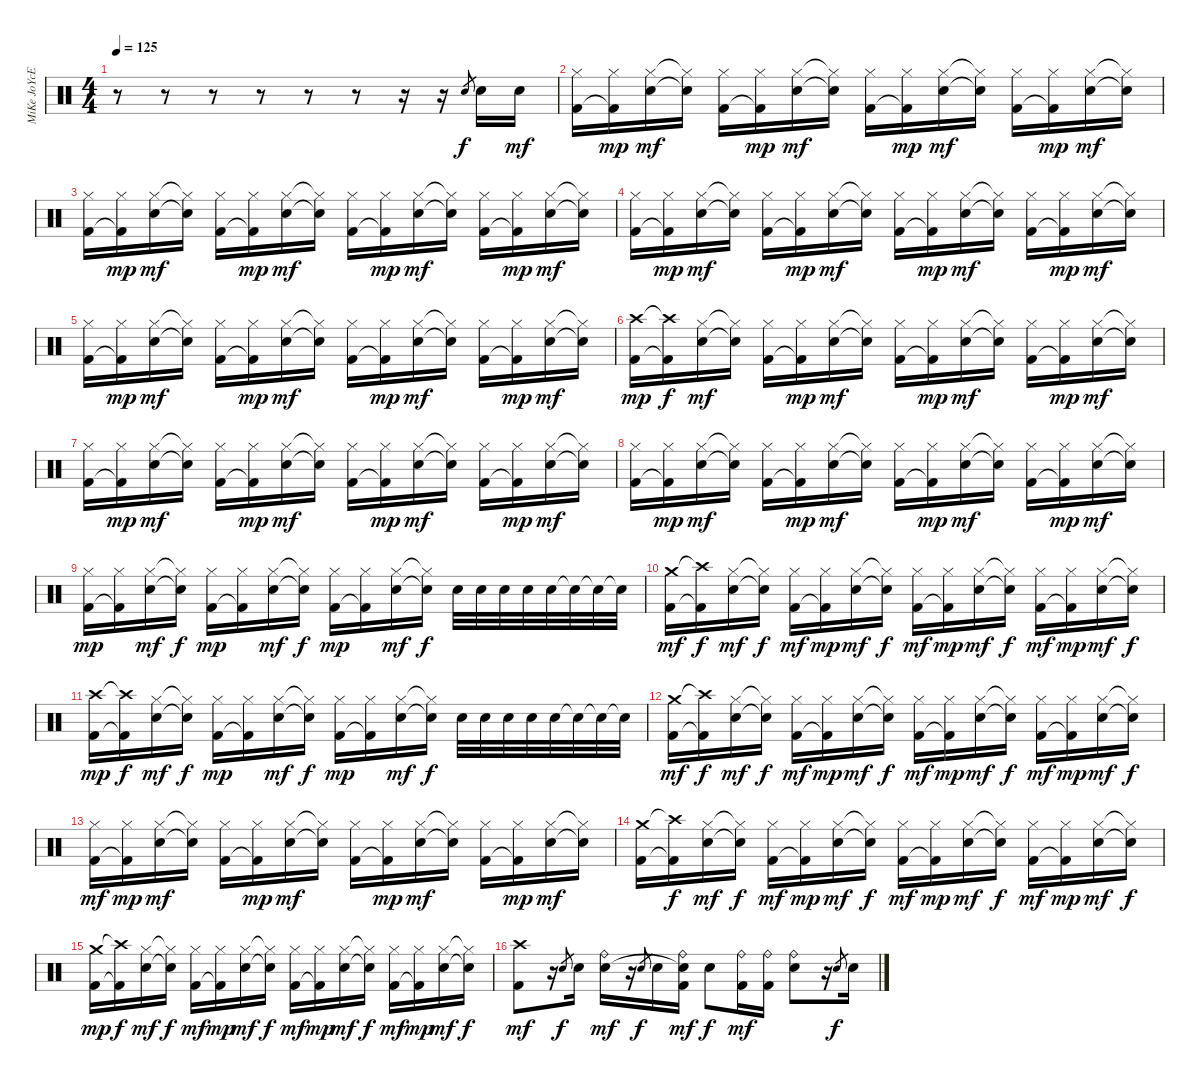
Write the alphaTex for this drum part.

\track ("MiKe JoYcE" "MiKe JoYcE") {instrument percussion}
\staff {score}
\articulation defaults
\ts (4 4)
\tempo 125
\clef neutral
\ks c
r.8{dy f} r.8 r.8 r.8 r.8 r.8 r.16 r.16 "Electric Snare (hit)".8{gr} "Electric Snare (hit)".16 "Electric Snare (hit)".16{dy mf} |
("Hi-Hat (closed)" "Kick (hit) 2").16 ("Hi-Hat (closed)" "Kick (hit) 2"{t}).16{dy mp} ("Hi-Hat (closed)" "Electric Snare (hit)").16{dy mf} ("Hi-Hat (closed)"{t} "Electric Snare (hit)"{t}).16 ("Hi-Hat (closed)" "Kick (hit) 2").16 ("Hi-Hat (closed)" "Kick (hit) 2"{t}).16{dy mp} ("Hi-Hat (closed)" "Electric Snare (hit)").16{dy mf} ("Hi-Hat (closed)"{t} "Electric Snare (hit)"{t}).16 ("Hi-Hat (closed)" "Kick (hit) 2").16 ("Hi-Hat (closed)" "Kick (hit) 2"{t}).16{dy mp} ("Hi-Hat (closed)" "Electric Snare (hit)").16{dy mf} ("Hi-Hat (closed)"{t} "Electric Snare (hit)"{t}).16 ("Hi-Hat (closed)" "Kick (hit) 2").16 ("Hi-Hat (closed)" "Kick (hit) 2"{t}).16{dy mp} ("Hi-Hat (closed)" "Electric Snare (hit)").16{dy mf} ("Hi-Hat (closed)"{t} "Electric Snare (hit)"{t}).16 |
("Hi-Hat (closed)" "Kick (hit) 2").16 ("Hi-Hat (closed)" "Kick (hit) 2"{t}).16{dy mp} ("Hi-Hat (closed)" "Electric Snare (hit)").16{dy mf} ("Hi-Hat (closed)"{t} "Electric Snare (hit)"{t}).16 ("Hi-Hat (closed)" "Kick (hit) 2").16 ("Hi-Hat (closed)" "Kick (hit) 2"{t}).16{dy mp} ("Hi-Hat (closed)" "Electric Snare (hit)").16{dy mf} ("Hi-Hat (closed)"{t} "Electric Snare (hit)"{t}).16 ("Hi-Hat (closed)" "Kick (hit) 2").16 ("Hi-Hat (closed)" "Kick (hit) 2"{t}).16{dy mp} ("Hi-Hat (closed)" "Electric Snare (hit)").16{dy mf} ("Hi-Hat (closed)"{t} "Electric Snare (hit)"{t}).16 ("Hi-Hat (closed)" "Kick (hit) 2").16 ("Hi-Hat (closed)" "Kick (hit) 2"{t}).16{dy mp} ("Hi-Hat (closed)" "Electric Snare (hit)").16{dy mf} ("Hi-Hat (closed)"{t} "Electric Snare (hit)"{t}).16 |
("Hi-Hat (closed)" "Kick (hit) 2").16 ("Hi-Hat (closed)" "Kick (hit) 2"{t}).16{dy mp} ("Hi-Hat (closed)" "Electric Snare (hit)").16{dy mf} ("Hi-Hat (closed)"{t} "Electric Snare (hit)"{t}).16 ("Hi-Hat (closed)" "Kick (hit) 2").16 ("Hi-Hat (closed)" "Kick (hit) 2"{t}).16{dy mp} ("Hi-Hat (closed)" "Electric Snare (hit)").16{dy mf} ("Hi-Hat (closed)"{t} "Electric Snare (hit)"{t}).16 ("Hi-Hat (closed)" "Kick (hit) 2").16 ("Hi-Hat (closed)" "Kick (hit) 2"{t}).16{dy mp} ("Hi-Hat (closed)" "Electric Snare (hit)").16{dy mf} ("Hi-Hat (closed)"{t} "Electric Snare (hit)"{t}).16 ("Hi-Hat (closed)" "Kick (hit) 2").16 ("Hi-Hat (closed)" "Kick (hit) 2"{t}).16{dy mp} ("Hi-Hat (closed)" "Electric Snare (hit)").16{dy mf} ("Hi-Hat (closed)"{t} "Electric Snare (hit)"{t}).16 |
("Hi-Hat (closed)" "Kick (hit) 2").16 ("Hi-Hat (closed)" "Kick (hit) 2"{t}).16{dy mp} ("Hi-Hat (closed)" "Electric Snare (hit)").16{dy mf} ("Hi-Hat (closed)"{t} "Electric Snare (hit)"{t}).16 ("Hi-Hat (closed)" "Kick (hit) 2").16 ("Hi-Hat (closed)" "Kick (hit) 2"{t}).16{dy mp} ("Hi-Hat (closed)" "Electric Snare (hit)").16{dy mf} ("Hi-Hat (closed)"{t} "Electric Snare (hit)"{t}).16 ("Hi-Hat (closed)" "Kick (hit) 2").16 ("Hi-Hat (closed)" "Kick (hit) 2"{t}).16{dy mp} ("Hi-Hat (closed)" "Electric Snare (hit)").16{dy mf} ("Hi-Hat (closed)"{t} "Electric Snare (hit)"{t}).16 ("Hi-Hat (closed)" "Kick (hit) 2").16 ("Hi-Hat (closed)" "Kick (hit) 2"{t}).16{dy mp} ("Hi-Hat (closed)" "Electric Snare (hit)").16{dy mf} ("Hi-Hat (closed)"{t} "Electric Snare (hit)"{t}).16 |
("Crash high (hit)" "Kick (hit) 2").16{dy mp} ("Crash high (hit)"{t} "Kick (hit) 2"{t}).16{dy f} ("Hi-Hat (closed)" "Electric Snare (hit)").16{dy mf} ("Hi-Hat (closed)"{t} "Electric Snare (hit)"{t}).16 ("Hi-Hat (closed)" "Kick (hit) 2").16 ("Hi-Hat (closed)" "Kick (hit) 2"{t}).16{dy mp} ("Hi-Hat (closed)" "Electric Snare (hit)").16{dy mf} ("Hi-Hat (closed)"{t} "Electric Snare (hit)"{t}).16 ("Hi-Hat (closed)" "Kick (hit) 2").16 ("Hi-Hat (closed)" "Kick (hit) 2"{t}).16{dy mp} ("Hi-Hat (closed)" "Electric Snare (hit)").16{dy mf} ("Hi-Hat (closed)"{t} "Electric Snare (hit)"{t}).16 ("Hi-Hat (closed)" "Kick (hit) 2").16 ("Hi-Hat (closed)" "Kick (hit) 2"{t}).16{dy mp} ("Hi-Hat (closed)" "Electric Snare (hit)").16{dy mf} ("Hi-Hat (closed)"{t} "Electric Snare (hit)"{t}).16 |
("Hi-Hat (closed)" "Kick (hit) 2").16 ("Hi-Hat (closed)" "Kick (hit) 2"{t}).16{dy mp} ("Hi-Hat (closed)" "Electric Snare (hit)").16{dy mf} ("Hi-Hat (closed)"{t} "Electric Snare (hit)"{t}).16 ("Hi-Hat (closed)" "Kick (hit) 2").16 ("Hi-Hat (closed)" "Kick (hit) 2"{t}).16{dy mp} ("Hi-Hat (closed)" "Electric Snare (hit)").16{dy mf} ("Hi-Hat (closed)"{t} "Electric Snare (hit)"{t}).16 ("Hi-Hat (closed)" "Kick (hit) 2").16 ("Hi-Hat (closed)" "Kick (hit) 2"{t}).16{dy mp} ("Hi-Hat (closed)" "Electric Snare (hit)").16{dy mf} ("Hi-Hat (closed)"{t} "Electric Snare (hit)"{t}).16 ("Hi-Hat (closed)" "Kick (hit) 2").16 ("Hi-Hat (closed)" "Kick (hit) 2"{t}).16{dy mp} ("Hi-Hat (closed)" "Electric Snare (hit)").16{dy mf} ("Hi-Hat (closed)"{t} "Electric Snare (hit)"{t}).16 |
("Hi-Hat (closed)" "Kick (hit) 2").16 ("Hi-Hat (closed)" "Kick (hit) 2"{t}).16{dy mp} ("Hi-Hat (closed)" "Electric Snare (hit)").16{dy mf} ("Hi-Hat (closed)"{t} "Electric Snare (hit)"{t}).16 ("Hi-Hat (closed)" "Kick (hit) 2").16 ("Hi-Hat (closed)" "Kick (hit) 2"{t}).16{dy mp} ("Hi-Hat (closed)" "Electric Snare (hit)").16{dy mf} ("Hi-Hat (closed)"{t} "Electric Snare (hit)"{t}).16 ("Hi-Hat (closed)" "Kick (hit) 2").16 ("Hi-Hat (closed)" "Kick (hit) 2"{t}).16{dy mp} ("Hi-Hat (closed)" "Electric Snare (hit)").16{dy mf} ("Hi-Hat (closed)"{t} "Electric Snare (hit)"{t}).16 ("Hi-Hat (closed)" "Kick (hit) 2").16 ("Hi-Hat (closed)" "Kick (hit) 2"{t}).16{dy mp} ("Hi-Hat (closed)" "Electric Snare (hit)").16{dy mf} ("Hi-Hat (closed)"{t} "Electric Snare (hit)"{t}).16 |
("Hi-Hat (closed)" "Kick (hit) 2").16{dy mp} ("Hi-Hat (closed)" "Kick (hit) 2"{t}).16 ("Hi-Hat (closed)" "Electric Snare (hit)").16{dy mf} ("Hi-Hat (closed)"{t} "Electric Snare (hit)"{t}).16{dy f} ("Hi-Hat (closed)" "Kick (hit) 2").16{dy mp} ("Hi-Hat (closed)" "Kick (hit) 2"{t}).16 ("Hi-Hat (closed)" "Electric Snare (hit)").16{dy mf} ("Hi-Hat (closed)"{t} "Electric Snare (hit)"{t}).16{dy f} ("Hi-Hat (closed)" "Kick (hit) 2").16{dy mp} ("Hi-Hat (closed)" "Kick (hit) 2"{t}).16 ("Hi-Hat (closed)" "Electric Snare (hit)").16{dy mf} ("Hi-Hat (closed)"{t} "Electric Snare (hit)"{t}).16{dy f} "Electric Snare (hit)".32 "Electric Snare (hit)".32 "Electric Snare (hit)".32 "Electric Snare (hit)".32 "Electric Snare (hit)".32 "Electric Snare (hit)"{t}.32 "Electric Snare (hit)"{t}.32 "Electric Snare (hit)"{t}.32 |
("Crash medium (hit)" "Kick (hit) 2").16{dy mf} ("Crash high (hit)"{t} "Kick (hit) 2"{t}).16{dy f} ("Hi-Hat (closed)" "Electric Snare (hit)").16{dy mf} ("Hi-Hat (closed)"{t} "Electric Snare (hit)"{t}).16{dy f} ("Hi-Hat (closed)" "Kick (hit) 2").16{dy mf} ("Hi-Hat (closed)" "Kick (hit) 2"{t}).16{dy mp} ("Hi-Hat (closed)" "Electric Snare (hit)").16{dy mf} ("Hi-Hat (closed)"{t} "Electric Snare (hit)"{t}).16{dy f} ("Hi-Hat (closed)" "Kick (hit) 2").16{dy mf} ("Hi-Hat (closed)" "Kick (hit) 2"{t}).16{dy mp} ("Hi-Hat (closed)" "Electric Snare (hit)").16{dy mf} ("Hi-Hat (closed)"{t} "Electric Snare (hit)"{t}).16{dy f} ("Hi-Hat (closed)" "Kick (hit) 2").16{dy mf} ("Hi-Hat (closed)" "Kick (hit) 2"{t}).16{dy mp} ("Hi-Hat (closed)" "Electric Snare (hit)").16{dy mf} ("Hi-Hat (closed)"{t} "Electric Snare (hit)"{t}).16{dy f} |
("Crash high (hit)" "Kick (hit) 2").16{dy mp} ("Crash high (hit)"{t} "Kick (hit) 2"{t}).16{dy f} ("Hi-Hat (closed)" "Electric Snare (hit)").16{dy mf} ("Hi-Hat (closed)"{t} "Electric Snare (hit)"{t}).16{dy f} ("Hi-Hat (closed)" "Kick (hit) 2").16{dy mp} ("Hi-Hat (closed)" "Kick (hit) 2"{t}).16 ("Hi-Hat (closed)" "Electric Snare (hit)").16{dy mf} ("Hi-Hat (closed)"{t} "Electric Snare (hit)"{t}).16{dy f} ("Hi-Hat (closed)" "Kick (hit) 2").16{dy mp} ("Hi-Hat (closed)" "Kick (hit) 2"{t}).16 ("Hi-Hat (closed)" "Electric Snare (hit)").16{dy mf} ("Hi-Hat (closed)"{t} "Electric Snare (hit)"{t}).16{dy f} "Electric Snare (hit)".32 "Electric Snare (hit)".32 "Electric Snare (hit)".32 "Electric Snare (hit)".32 "Electric Snare (hit)".32 "Electric Snare (hit)"{t}.32 "Electric Snare (hit)"{t}.32 "Electric Snare (hit)"{t}.32 |
("Crash medium (hit)" "Kick (hit) 2").16{dy mf} ("Crash high (hit)"{t} "Kick (hit) 2"{t}).16{dy f} ("Hi-Hat (closed)" "Electric Snare (hit)").16{dy mf} ("Hi-Hat (closed)"{t} "Electric Snare (hit)"{t}).16{dy f} ("Hi-Hat (closed)" "Kick (hit) 2").16{dy mf} ("Hi-Hat (closed)" "Kick (hit) 2"{t}).16{dy mp} ("Hi-Hat (closed)" "Electric Snare (hit)").16{dy mf} ("Hi-Hat (closed)"{t} "Electric Snare (hit)"{t}).16{dy f} ("Hi-Hat (closed)" "Kick (hit) 2").16{dy mf} ("Hi-Hat (closed)" "Kick (hit) 2"{t}).16{dy mp} ("Hi-Hat (closed)" "Electric Snare (hit)").16{dy mf} ("Hi-Hat (closed)"{t} "Electric Snare (hit)"{t}).16{dy f} ("Hi-Hat (closed)" "Kick (hit) 2").16{dy mf} ("Hi-Hat (closed)" "Kick (hit) 2"{t}).16{dy mp} ("Hi-Hat (closed)" "Electric Snare (hit)").16{dy mf} ("Hi-Hat (closed)"{t} "Electric Snare (hit)"{t}).16{dy f} |
("Hi-Hat (closed)" "Kick (hit) 2").16{dy mf} ("Hi-Hat (closed)" "Kick (hit) 2"{t}).16{dy mp} ("Hi-Hat (closed)" "Electric Snare (hit)").16{dy mf} ("Hi-Hat (closed)"{t} "Electric Snare (hit)"{t}).16 ("Hi-Hat (closed)" "Kick (hit) 2").16 ("Hi-Hat (closed)" "Kick (hit) 2"{t}).16{dy mp} ("Hi-Hat (closed)" "Electric Snare (hit)").16{dy mf} ("Hi-Hat (closed)"{t} "Electric Snare (hit)"{t}).16 ("Hi-Hat (closed)" "Kick (hit) 2").16 ("Hi-Hat (closed)" "Kick (hit) 2"{t}).16{dy mp} ("Hi-Hat (closed)" "Electric Snare (hit)").16{dy mf} ("Hi-Hat (closed)"{t} "Electric Snare (hit)"{t}).16 ("Hi-Hat (closed)" "Kick (hit) 2").16 ("Hi-Hat (closed)" "Kick (hit) 2"{t}).16{dy mp} ("Hi-Hat (closed)" "Electric Snare (hit)").16{dy mf} ("Hi-Hat (closed)"{t} "Electric Snare (hit)"{t}).16 |
("Crash medium (hit)" "Kick (hit) 2").16 ("Crash high (hit)"{t} "Kick (hit) 2"{t}).16{dy f} ("Hi-Hat (closed)" "Electric Snare (hit)").16{dy mf} ("Hi-Hat (closed)"{t} "Electric Snare (hit)"{t}).16{dy f} ("Hi-Hat (closed)" "Kick (hit) 2").16{dy mf} ("Hi-Hat (closed)" "Kick (hit) 2"{t}).16{dy mp} ("Hi-Hat (closed)" "Electric Snare (hit)").16{dy mf} ("Hi-Hat (closed)"{t} "Electric Snare (hit)"{t}).16{dy f} ("Hi-Hat (closed)" "Kick (hit) 2").16{dy mf} ("Hi-Hat (closed)" "Kick (hit) 2"{t}).16{dy mp} ("Hi-Hat (closed)" "Electric Snare (hit)").16{dy mf} ("Hi-Hat (closed)"{t} "Electric Snare (hit)"{t}).16{dy f} ("Hi-Hat (closed)" "Kick (hit) 2").16{dy mf} ("Hi-Hat (closed)" "Kick (hit) 2"{t}).16{dy mp} ("Hi-Hat (closed)" "Electric Snare (hit)").16{dy mf} ("Hi-Hat (closed)"{t} "Electric Snare (hit)"{t}).16{dy f} |
("Crash medium (hit)" "Kick (hit) 2").16{dy mp} ("Crash high (hit)"{t} "Kick (hit) 2"{t}).16{dy f} ("Hi-Hat (closed)" "Electric Snare (hit)").16{dy mf} ("Hi-Hat (closed)"{t} "Electric Snare (hit)"{t}).16{dy f} ("Hi-Hat (closed)" "Kick (hit) 2").16{dy mf} ("Hi-Hat (closed)" "Kick (hit) 2"{t}).16{dy mp} ("Hi-Hat (closed)" "Electric Snare (hit)").16{dy mf} ("Hi-Hat (closed)"{t} "Electric Snare (hit)"{t}).16{dy f} ("Hi-Hat (closed)" "Kick (hit) 2").16{dy mf} ("Hi-Hat (closed)" "Kick (hit) 2"{t}).16{dy mp} ("Hi-Hat (closed)" "Electric Snare (hit)").16{dy mf} ("Hi-Hat (closed)"{t} "Electric Snare (hit)"{t}).16{dy f} ("Hi-Hat (closed)" "Kick (hit) 2").16{dy mf} ("Hi-Hat (closed)" "Kick (hit) 2"{t}).16{dy mp} ("Hi-Hat (closed)" "Electric Snare (hit)").16{dy mf} ("Hi-Hat (closed)"{t} "Electric Snare (hit)"{t}).16{dy f} |
("Crash high (hit)" "Kick (hit) 2").8{dy mf} r.16 "Electric Snare (hit)".8{gr dy f} "Electric Snare (hit)".16 ("Ride (bell)" "Electric Snare (hit)").16{dy mf} r.16 "Electric Snare (hit)".8{gr dy f} "Electric Snare (hit)".16 ("Ride (bell)" "Electric Snare (hit)"{t} "Kick (hit) 2").16{dy mf} "Electric Snare (hit)".8{dy f} ("Ride (bell)" "Kick (hit) 2").16{dy mf} ("Ride (bell)" "Kick (hit) 2").16 ("Ride (bell)" "Electric Snare (hit)").8 r.16 "Electric Snare (hit)".8{gr dy f} "Electric Snare (hit)".16
